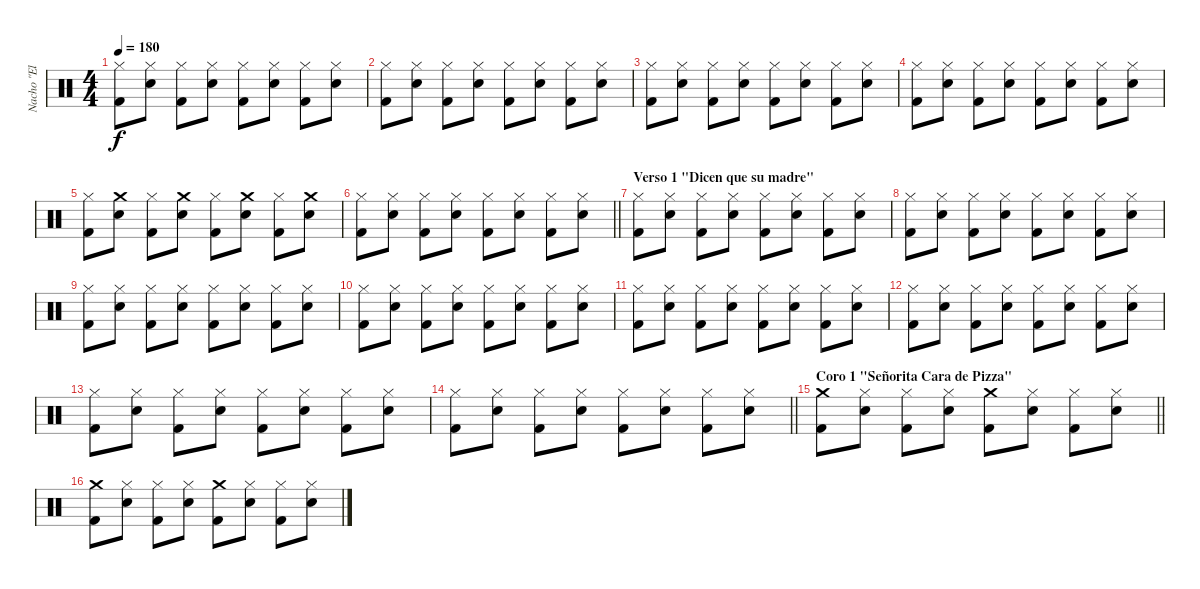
\track ("Nacho \"El Implacable\"Gonzales" "Nacho \"El ") {instrument percussion}
\staff {score}
\articulation defaults
\ts (4 4)
\tempo 180
\clef neutral
\ks c
("Hi-Hat (closed)" "Kick (hit) 2").8{dy f} ("Hi-Hat (closed)" "Electric Snare (hit)").8 ("Hi-Hat (closed)" "Kick (hit) 2").8 ("Hi-Hat (closed)" "Electric Snare (hit)").8 ("Hi-Hat (closed)" "Kick (hit) 2").8 ("Hi-Hat (closed)" "Electric Snare (hit)").8 ("Hi-Hat (closed)" "Kick (hit) 2").8 ("Hi-Hat (closed)" "Electric Snare (hit)").8 |
("Hi-Hat (closed)" "Kick (hit) 2").8 ("Hi-Hat (closed)" "Electric Snare (hit)").8 ("Hi-Hat (closed)" "Kick (hit) 2").8 ("Hi-Hat (closed)" "Electric Snare (hit)").8 ("Hi-Hat (closed)" "Kick (hit) 2").8 ("Hi-Hat (closed)" "Electric Snare (hit)").8 ("Hi-Hat (closed)" "Kick (hit) 2").8 ("Hi-Hat (closed)" "Electric Snare (hit)").8 |
("Hi-Hat (closed)" "Kick (hit) 2").8 ("Hi-Hat (closed)" "Electric Snare (hit)").8 ("Hi-Hat (closed)" "Kick (hit) 2").8 ("Hi-Hat (closed)" "Electric Snare (hit)").8 ("Hi-Hat (closed)" "Kick (hit) 2").8 ("Hi-Hat (closed)" "Electric Snare (hit)").8 ("Hi-Hat (closed)" "Kick (hit) 2").8 ("Hi-Hat (closed)" "Electric Snare (hit)").8 |
("Hi-Hat (closed)" "Kick (hit) 2").8 ("Hi-Hat (closed)" "Electric Snare (hit)").8 ("Hi-Hat (closed)" "Kick (hit) 2").8 ("Hi-Hat (closed)" "Electric Snare (hit)").8 ("Hi-Hat (closed)" "Kick (hit) 2").8 ("Hi-Hat (closed)" "Electric Snare (hit)").8 ("Hi-Hat (closed)" "Kick (hit) 2").8 ("Hi-Hat (closed)" "Electric Snare (hit)").8 |
("Hi-Hat (closed)" "Kick (hit) 2").8 ("Crash medium (hit)" "Electric Snare (hit)").8 ("Hi-Hat (closed)" "Kick (hit) 2").8 ("Crash medium (hit)" "Electric Snare (hit)").8 ("Hi-Hat (closed)" "Kick (hit) 2").8 ("Crash medium (hit)" "Electric Snare (hit)").8 ("Hi-Hat (closed)" "Kick (hit) 2").8 ("Crash medium (hit)" "Electric Snare (hit)").8 |
\barLineRight lightlight
("Hi-Hat (closed)" "Kick (hit) 2").8 ("Hi-Hat (closed)" "Electric Snare (hit)").8 ("Hi-Hat (closed)" "Kick (hit) 2").8 ("Hi-Hat (closed)" "Electric Snare (hit)").8 ("Hi-Hat (closed)" "Kick (hit) 2").8 ("Hi-Hat (closed)" "Electric Snare (hit)").8 ("Hi-Hat (closed)" "Kick (hit) 2").8 ("Hi-Hat (closed)" "Electric Snare (hit)").8 |
\section ("" "Verso 1 \"Dicen que su madre\"")
("Hi-Hat (closed)" "Kick (hit) 2").8 ("Hi-Hat (closed)" "Electric Snare (hit)").8 ("Hi-Hat (closed)" "Kick (hit) 2").8 ("Hi-Hat (closed)" "Electric Snare (hit)").8 ("Hi-Hat (closed)" "Kick (hit) 2").8 ("Hi-Hat (closed)" "Electric Snare (hit)").8 ("Hi-Hat (closed)" "Kick (hit) 2").8 ("Hi-Hat (closed)" "Electric Snare (hit)").8 |
("Hi-Hat (closed)" "Kick (hit) 2").8 ("Hi-Hat (closed)" "Electric Snare (hit)").8 ("Hi-Hat (closed)" "Kick (hit) 2").8 ("Hi-Hat (closed)" "Electric Snare (hit)").8 ("Hi-Hat (closed)" "Kick (hit) 2").8 ("Hi-Hat (closed)" "Electric Snare (hit)").8 ("Hi-Hat (closed)" "Kick (hit) 2").8 ("Hi-Hat (closed)" "Electric Snare (hit)").8 |
("Hi-Hat (closed)" "Kick (hit) 2").8 ("Hi-Hat (closed)" "Electric Snare (hit)").8 ("Hi-Hat (closed)" "Kick (hit) 2").8 ("Hi-Hat (closed)" "Electric Snare (hit)").8 ("Hi-Hat (closed)" "Kick (hit) 2").8 ("Hi-Hat (closed)" "Electric Snare (hit)").8 ("Hi-Hat (closed)" "Kick (hit) 2").8 ("Hi-Hat (closed)" "Electric Snare (hit)").8 |
("Hi-Hat (closed)" "Kick (hit) 2").8 ("Hi-Hat (closed)" "Electric Snare (hit)").8 ("Hi-Hat (closed)" "Kick (hit) 2").8 ("Hi-Hat (closed)" "Electric Snare (hit)").8 ("Hi-Hat (closed)" "Kick (hit) 2").8 ("Hi-Hat (closed)" "Electric Snare (hit)").8 ("Hi-Hat (closed)" "Kick (hit) 2").8 ("Hi-Hat (closed)" "Electric Snare (hit)").8 |
("Hi-Hat (closed)" "Kick (hit) 2").8 ("Hi-Hat (closed)" "Electric Snare (hit)").8 ("Hi-Hat (closed)" "Kick (hit) 2").8 ("Hi-Hat (closed)" "Electric Snare (hit)").8 ("Hi-Hat (closed)" "Kick (hit) 2").8 ("Hi-Hat (closed)" "Electric Snare (hit)").8 ("Hi-Hat (closed)" "Kick (hit) 2").8 ("Hi-Hat (closed)" "Electric Snare (hit)").8 |
("Hi-Hat (closed)" "Kick (hit) 2").8 ("Hi-Hat (closed)" "Electric Snare (hit)").8 ("Hi-Hat (closed)" "Kick (hit) 2").8 ("Hi-Hat (closed)" "Electric Snare (hit)").8 ("Hi-Hat (closed)" "Kick (hit) 2").8 ("Hi-Hat (closed)" "Electric Snare (hit)").8 ("Hi-Hat (closed)" "Kick (hit) 2").8 ("Hi-Hat (closed)" "Electric Snare (hit)").8 |
("Hi-Hat (closed)" "Kick (hit) 2").8 ("Hi-Hat (closed)" "Electric Snare (hit)").8 ("Hi-Hat (closed)" "Kick (hit) 2").8 ("Hi-Hat (closed)" "Electric Snare (hit)").8 ("Hi-Hat (closed)" "Kick (hit) 2").8 ("Hi-Hat (closed)" "Electric Snare (hit)").8 ("Hi-Hat (closed)" "Kick (hit) 2").8 ("Hi-Hat (closed)" "Electric Snare (hit)").8 |
\barLineRight lightlight
("Hi-Hat (closed)" "Kick (hit) 2").8 ("Hi-Hat (closed)" "Electric Snare (hit)").8 ("Hi-Hat (closed)" "Kick (hit) 2").8 ("Hi-Hat (closed)" "Electric Snare (hit)").8 ("Hi-Hat (closed)" "Kick (hit) 2").8 ("Hi-Hat (closed)" "Electric Snare (hit)").8 ("Hi-Hat (closed)" "Kick (hit) 2").8 ("Hi-Hat (closed)" "Electric Snare (hit)").8 |
\section ("" "Coro 1 \"Señorita Cara de Pizza\"")
\barLineRight lightlight
("Crash medium (hit)" "Kick (hit) 2").8 ("Hi-Hat (closed)" "Electric Snare (hit)").8 ("Hi-Hat (closed)" "Kick (hit) 2").8 ("Hi-Hat (closed)" "Electric Snare (hit)").8 ("Crash medium (hit)" "Kick (hit) 2").8 ("Hi-Hat (closed)" "Electric Snare (hit)").8 ("Hi-Hat (closed)" "Kick (hit) 2").8 ("Hi-Hat (closed)" "Electric Snare (hit)").8 |
("Crash medium (hit)" "Kick (hit) 2").8 ("Hi-Hat (closed)" "Electric Snare (hit)").8 ("Hi-Hat (closed)" "Kick (hit) 2").8 ("Hi-Hat (closed)" "Electric Snare (hit)").8 ("Crash medium (hit)" "Kick (hit) 2").8 ("Hi-Hat (closed)" "Electric Snare (hit)").8 ("Hi-Hat (closed)" "Kick (hit) 2").8 ("Hi-Hat (closed)" "Electric Snare (hit)").8
